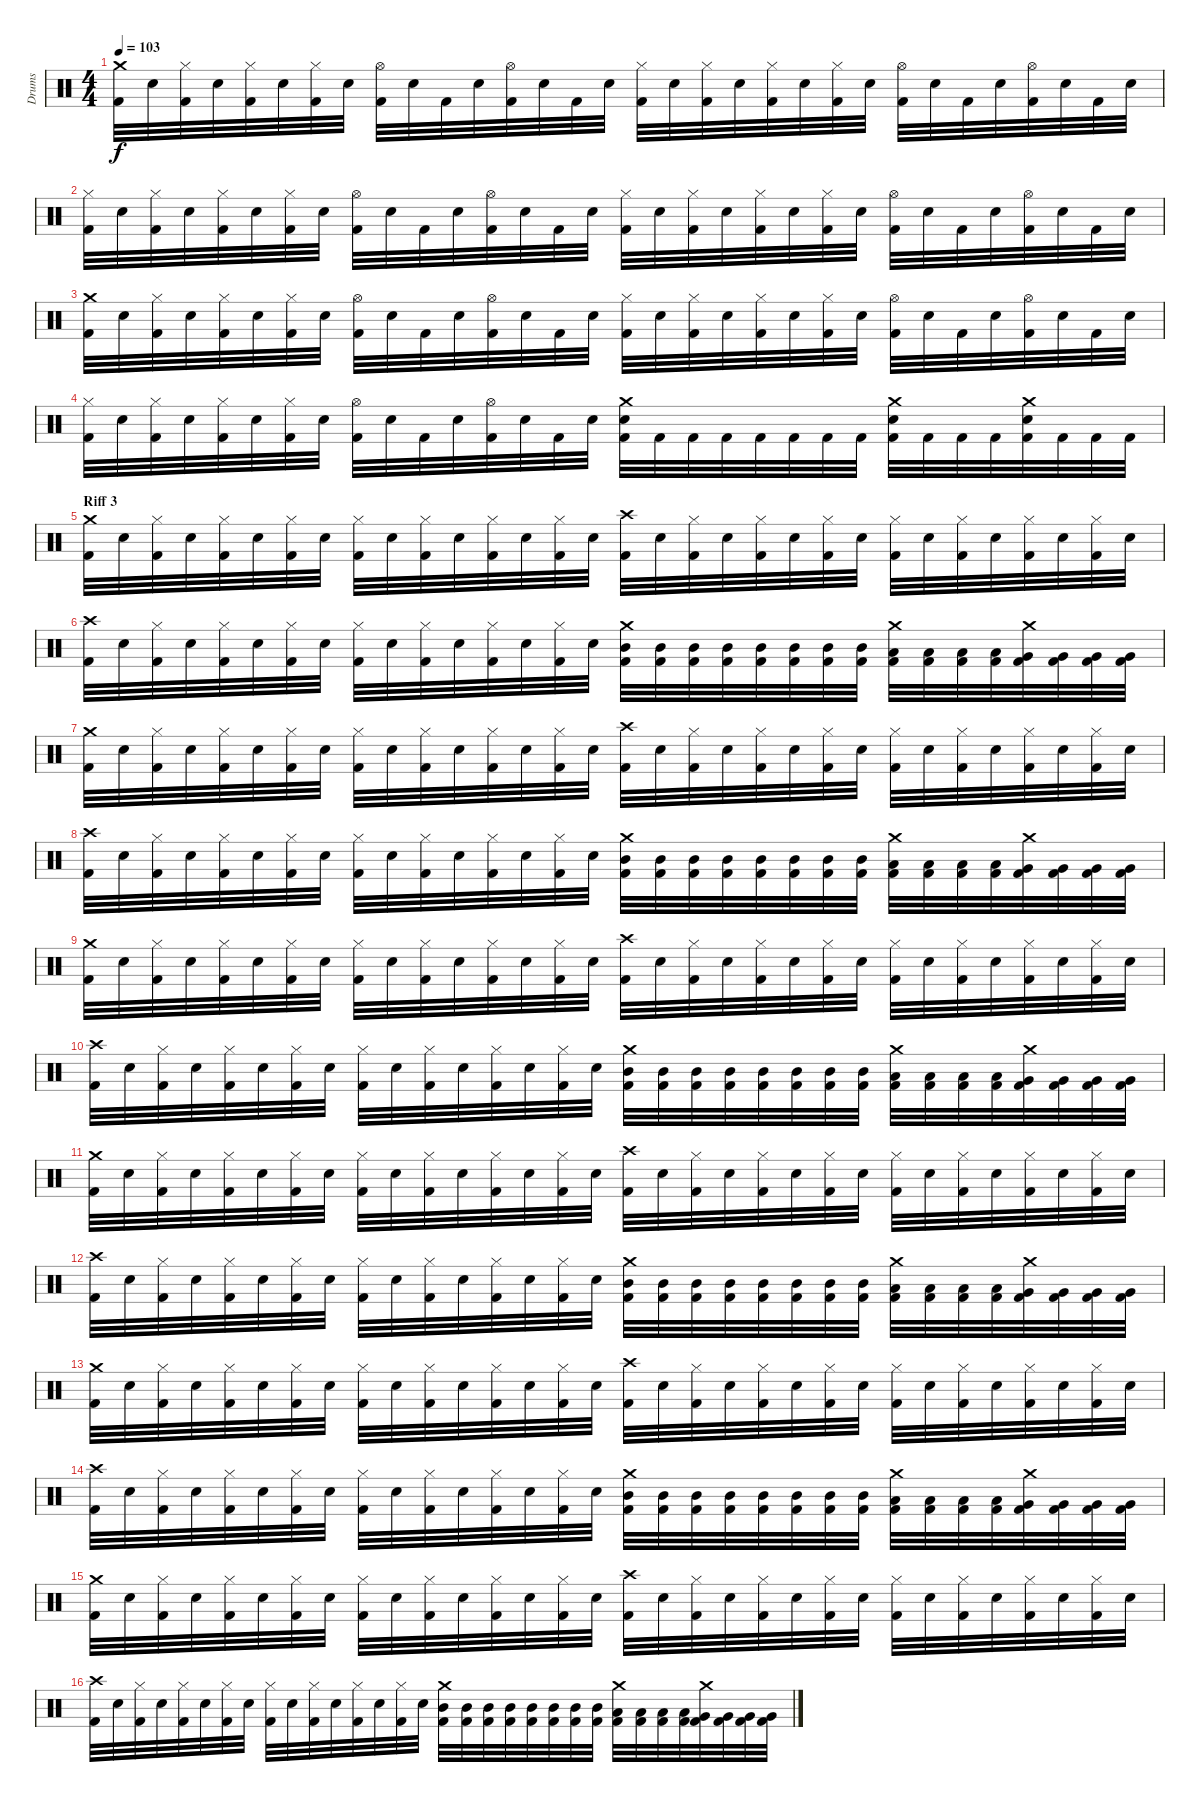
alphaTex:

\track ("Drums" "Drums") {instrument percussion}
\staff {score}
\articulation defaults
\ts (4 4)
\tempo 103
\clef neutral
\ks c
("Crash medium (hit)" "Kick (hit) 2").32{dy f} "Electric Snare (hit)".32 ("Hi-Hat (closed)" "Kick (hit) 2").32 "Electric Snare (hit)".32 ("Hi-Hat (closed)" "Kick (hit) 2").32 "Electric Snare (hit)".32 ("Hi-Hat (closed)" "Kick (hit) 2").32 "Electric Snare (hit)".32 ("Hi-Hat (open)" "Kick (hit) 2").32 "Electric Snare (hit)".32 "Kick (hit) 2".32 "Electric Snare (hit)".32 ("Hi-Hat (open)" "Kick (hit) 2").32 "Electric Snare (hit)".32 "Kick (hit) 2".32 "Electric Snare (hit)".32 ("Hi-Hat (closed)" "Kick (hit) 2").32 "Electric Snare (hit)".32 ("Hi-Hat (closed)" "Kick (hit) 2").32 "Electric Snare (hit)".32 ("Hi-Hat (closed)" "Kick (hit) 2").32 "Electric Snare (hit)".32 ("Hi-Hat (closed)" "Kick (hit) 2").32 "Electric Snare (hit)".32 ("Hi-Hat (open)" "Kick (hit) 2").32 "Electric Snare (hit)".32 "Kick (hit) 2".32 "Electric Snare (hit)".32 ("Hi-Hat (open)" "Kick (hit) 2").32 "Electric Snare (hit)".32 "Kick (hit) 2".32 "Electric Snare (hit)".32 |
("Hi-Hat (closed)" "Kick (hit) 2").32 "Electric Snare (hit)".32 ("Hi-Hat (closed)" "Kick (hit) 2").32 "Electric Snare (hit)".32 ("Hi-Hat (closed)" "Kick (hit) 2").32 "Electric Snare (hit)".32 ("Hi-Hat (closed)" "Kick (hit) 2").32 "Electric Snare (hit)".32 ("Hi-Hat (open)" "Kick (hit) 2").32 "Electric Snare (hit)".32 "Kick (hit) 2".32 "Electric Snare (hit)".32 ("Hi-Hat (open)" "Kick (hit) 2").32 "Electric Snare (hit)".32 "Kick (hit) 2".32 "Electric Snare (hit)".32 ("Hi-Hat (closed)" "Kick (hit) 2").32 "Electric Snare (hit)".32 ("Hi-Hat (closed)" "Kick (hit) 2").32 "Electric Snare (hit)".32 ("Hi-Hat (closed)" "Kick (hit) 2").32 "Electric Snare (hit)".32 ("Hi-Hat (closed)" "Kick (hit) 2").32 "Electric Snare (hit)".32 ("Hi-Hat (open)" "Kick (hit) 2").32 "Electric Snare (hit)".32 "Kick (hit) 2".32 "Electric Snare (hit)".32 ("Hi-Hat (open)" "Kick (hit) 2").32 "Electric Snare (hit)".32 "Kick (hit) 2".32 "Electric Snare (hit)".32 |
("Crash medium (hit)" "Kick (hit) 2").32 "Electric Snare (hit)".32 ("Hi-Hat (closed)" "Kick (hit) 2").32 "Electric Snare (hit)".32 ("Hi-Hat (closed)" "Kick (hit) 2").32 "Electric Snare (hit)".32 ("Hi-Hat (closed)" "Kick (hit) 2").32 "Electric Snare (hit)".32 ("Hi-Hat (open)" "Kick (hit) 2").32 "Electric Snare (hit)".32 "Kick (hit) 2".32 "Electric Snare (hit)".32 ("Hi-Hat (open)" "Kick (hit) 2").32 "Electric Snare (hit)".32 "Kick (hit) 2".32 "Electric Snare (hit)".32 ("Hi-Hat (closed)" "Kick (hit) 2").32 "Electric Snare (hit)".32 ("Hi-Hat (closed)" "Kick (hit) 2").32 "Electric Snare (hit)".32 ("Hi-Hat (closed)" "Kick (hit) 2").32 "Electric Snare (hit)".32 ("Hi-Hat (closed)" "Kick (hit) 2").32 "Electric Snare (hit)".32 ("Hi-Hat (open)" "Kick (hit) 2").32 "Electric Snare (hit)".32 "Kick (hit) 2".32 "Electric Snare (hit)".32 ("Hi-Hat (open)" "Kick (hit) 2").32 "Electric Snare (hit)".32 "Kick (hit) 2".32 "Electric Snare (hit)".32 |
("Hi-Hat (closed)" "Kick (hit) 2").32 "Electric Snare (hit)".32 ("Hi-Hat (closed)" "Kick (hit) 2").32 "Electric Snare (hit)".32 ("Hi-Hat (closed)" "Kick (hit) 2").32 "Electric Snare (hit)".32 ("Hi-Hat (closed)" "Kick (hit) 2").32 "Electric Snare (hit)".32 ("Hi-Hat (open)" "Kick (hit) 2").32 "Electric Snare (hit)".32 "Kick (hit) 2".32 "Electric Snare (hit)".32 ("Hi-Hat (open)" "Kick (hit) 2").32 "Electric Snare (hit)".32 "Kick (hit) 2".32 "Electric Snare (hit)".32 ("Crash medium (hit)" "Electric Snare (hit)" "Kick (hit) 2").32 "Kick (hit) 2".32 "Kick (hit) 2".32 "Kick (hit) 2".32 "Kick (hit) 2".32 "Kick (hit) 2".32 "Kick (hit) 2".32 "Kick (hit) 2".32 ("Crash medium (hit)" "Electric Snare (hit)" "Kick (hit) 2").32 "Kick (hit) 2".32 "Kick (hit) 2".32 "Kick (hit) 2".32 ("Crash medium (hit)" "Electric Snare (hit)" "Kick (hit) 2").32 "Kick (hit) 2".32 "Kick (hit) 2".32 "Kick (hit) 2".32 |
\section ("" "Riff 3")
("Crash medium (hit)" "Kick (hit) 2").32 "Electric Snare (hit)".32 ("Hi-Hat (closed)" "Kick (hit) 2").32 "Electric Snare (hit)".32 ("Hi-Hat (closed)" "Kick (hit) 2").32 "Electric Snare (hit)".32 ("Hi-Hat (closed)" "Kick (hit) 2").32 "Electric Snare (hit)".32 ("Hi-Hat (closed)" "Kick (hit) 2").32 "Electric Snare (hit)".32 ("Hi-Hat (closed)" "Kick (hit) 2").32 "Electric Snare (hit)".32 ("Hi-Hat (closed)" "Kick (hit) 2").32 "Electric Snare (hit)".32 ("Hi-Hat (closed)" "Kick (hit) 2").32 "Electric Snare (hit)".32 ("Crash high (hit)" "Kick (hit) 2").32 "Electric Snare (hit)".32 ("Hi-Hat (closed)" "Kick (hit) 2").32 "Electric Snare (hit)".32 ("Hi-Hat (closed)" "Kick (hit) 2").32 "Electric Snare (hit)".32 ("Hi-Hat (closed)" "Kick (hit) 2").32 "Electric Snare (hit)".32 ("Hi-Hat (closed)" "Kick (hit) 2").32 "Electric Snare (hit)".32 ("Hi-Hat (closed)" "Kick (hit) 2").32 "Electric Snare (hit)".32 ("Hi-Hat (closed)" "Kick (hit) 2").32 "Electric Snare (hit)".32 ("Hi-Hat (closed)" "Kick (hit) 2").32 "Electric Snare (hit)".32 |
("Crash high (hit)" "Kick (hit) 2").32 "Electric Snare (hit)".32 ("Hi-Hat (closed)" "Kick (hit) 2").32 "Electric Snare (hit)".32 ("Hi-Hat (closed)" "Kick (hit) 2").32 "Electric Snare (hit)".32 ("Hi-Hat (closed)" "Kick (hit) 2").32 "Electric Snare (hit)".32 ("Hi-Hat (closed)" "Kick (hit) 2").32 "Electric Snare (hit)".32 ("Hi-Hat (closed)" "Kick (hit) 2").32 "Electric Snare (hit)".32 ("Hi-Hat (closed)" "Kick (hit) 2").32 "Electric Snare (hit)".32 ("Hi-Hat (closed)" "Kick (hit) 2").32 "Electric Snare (hit)".32 ("Crash medium (hit)" "Mid Tom (hit)" "Kick (hit) 2").32 ("Mid Tom (hit)" "Kick (hit) 2").32 ("Mid Tom (hit)" "Kick (hit) 2").32 ("Mid Tom (hit)" "Kick (hit) 2").32 ("Mid Tom (hit)" "Kick (hit) 2").32 ("Mid Tom (hit)" "Kick (hit) 2").32 ("Mid Tom (hit)" "Kick (hit) 2").32 ("Mid Tom (hit)" "Kick (hit) 2").32 ("Crash medium (hit)" "Low Tom (hit)" "Kick (hit) 2").32 ("Low Tom (hit)" "Kick (hit) 2").32 ("Low Tom (hit)" "Kick (hit) 2").32 ("Low Tom (hit)" "Kick (hit) 2").32 ("Crash medium (hit)" "Very Low Tom (hit)" "Kick (hit) 2").32 ("Very Low Tom (hit)" "Kick (hit) 2").32 ("Very Low Tom (hit)" "Kick (hit) 2").32 ("Very Low Tom (hit)" "Kick (hit) 2").32 |
("Crash medium (hit)" "Kick (hit) 2").32 "Electric Snare (hit)".32 ("Hi-Hat (closed)" "Kick (hit) 2").32 "Electric Snare (hit)".32 ("Hi-Hat (closed)" "Kick (hit) 2").32 "Electric Snare (hit)".32 ("Hi-Hat (closed)" "Kick (hit) 2").32 "Electric Snare (hit)".32 ("Hi-Hat (closed)" "Kick (hit) 2").32 "Electric Snare (hit)".32 ("Hi-Hat (closed)" "Kick (hit) 2").32 "Electric Snare (hit)".32 ("Hi-Hat (closed)" "Kick (hit) 2").32 "Electric Snare (hit)".32 ("Hi-Hat (closed)" "Kick (hit) 2").32 "Electric Snare (hit)".32 ("Crash high (hit)" "Kick (hit) 2").32 "Electric Snare (hit)".32 ("Hi-Hat (closed)" "Kick (hit) 2").32 "Electric Snare (hit)".32 ("Hi-Hat (closed)" "Kick (hit) 2").32 "Electric Snare (hit)".32 ("Hi-Hat (closed)" "Kick (hit) 2").32 "Electric Snare (hit)".32 ("Hi-Hat (closed)" "Kick (hit) 2").32 "Electric Snare (hit)".32 ("Hi-Hat (closed)" "Kick (hit) 2").32 "Electric Snare (hit)".32 ("Hi-Hat (closed)" "Kick (hit) 2").32 "Electric Snare (hit)".32 ("Hi-Hat (closed)" "Kick (hit) 2").32 "Electric Snare (hit)".32 |
("Crash high (hit)" "Kick (hit) 2").32 "Electric Snare (hit)".32 ("Hi-Hat (closed)" "Kick (hit) 2").32 "Electric Snare (hit)".32 ("Hi-Hat (closed)" "Kick (hit) 2").32 "Electric Snare (hit)".32 ("Hi-Hat (closed)" "Kick (hit) 2").32 "Electric Snare (hit)".32 ("Hi-Hat (closed)" "Kick (hit) 2").32 "Electric Snare (hit)".32 ("Hi-Hat (closed)" "Kick (hit) 2").32 "Electric Snare (hit)".32 ("Hi-Hat (closed)" "Kick (hit) 2").32 "Electric Snare (hit)".32 ("Hi-Hat (closed)" "Kick (hit) 2").32 "Electric Snare (hit)".32 ("Crash medium (hit)" "Mid Tom (hit)" "Kick (hit) 2").32 ("Mid Tom (hit)" "Kick (hit) 2").32 ("Mid Tom (hit)" "Kick (hit) 2").32 ("Mid Tom (hit)" "Kick (hit) 2").32 ("Mid Tom (hit)" "Kick (hit) 2").32 ("Mid Tom (hit)" "Kick (hit) 2").32 ("Mid Tom (hit)" "Kick (hit) 2").32 ("Mid Tom (hit)" "Kick (hit) 2").32 ("Crash medium (hit)" "Low Tom (hit)" "Kick (hit) 2").32 ("Low Tom (hit)" "Kick (hit) 2").32 ("Low Tom (hit)" "Kick (hit) 2").32 ("Low Tom (hit)" "Kick (hit) 2").32 ("Crash medium (hit)" "Very Low Tom (hit)" "Kick (hit) 2").32 ("Very Low Tom (hit)" "Kick (hit) 2").32 ("Very Low Tom (hit)" "Kick (hit) 2").32 ("Very Low Tom (hit)" "Kick (hit) 2").32 |
("Crash medium (hit)" "Kick (hit) 2").32 "Electric Snare (hit)".32 ("Hi-Hat (closed)" "Kick (hit) 2").32 "Electric Snare (hit)".32 ("Hi-Hat (closed)" "Kick (hit) 2").32 "Electric Snare (hit)".32 ("Hi-Hat (closed)" "Kick (hit) 2").32 "Electric Snare (hit)".32 ("Hi-Hat (closed)" "Kick (hit) 2").32 "Electric Snare (hit)".32 ("Hi-Hat (closed)" "Kick (hit) 2").32 "Electric Snare (hit)".32 ("Hi-Hat (closed)" "Kick (hit) 2").32 "Electric Snare (hit)".32 ("Hi-Hat (closed)" "Kick (hit) 2").32 "Electric Snare (hit)".32 ("Crash high (hit)" "Kick (hit) 2").32 "Electric Snare (hit)".32 ("Hi-Hat (closed)" "Kick (hit) 2").32 "Electric Snare (hit)".32 ("Hi-Hat (closed)" "Kick (hit) 2").32 "Electric Snare (hit)".32 ("Hi-Hat (closed)" "Kick (hit) 2").32 "Electric Snare (hit)".32 ("Hi-Hat (closed)" "Kick (hit) 2").32 "Electric Snare (hit)".32 ("Hi-Hat (closed)" "Kick (hit) 2").32 "Electric Snare (hit)".32 ("Hi-Hat (closed)" "Kick (hit) 2").32 "Electric Snare (hit)".32 ("Hi-Hat (closed)" "Kick (hit) 2").32 "Electric Snare (hit)".32 |
("Crash high (hit)" "Kick (hit) 2").32 "Electric Snare (hit)".32 ("Hi-Hat (closed)" "Kick (hit) 2").32 "Electric Snare (hit)".32 ("Hi-Hat (closed)" "Kick (hit) 2").32 "Electric Snare (hit)".32 ("Hi-Hat (closed)" "Kick (hit) 2").32 "Electric Snare (hit)".32 ("Hi-Hat (closed)" "Kick (hit) 2").32 "Electric Snare (hit)".32 ("Hi-Hat (closed)" "Kick (hit) 2").32 "Electric Snare (hit)".32 ("Hi-Hat (closed)" "Kick (hit) 2").32 "Electric Snare (hit)".32 ("Hi-Hat (closed)" "Kick (hit) 2").32 "Electric Snare (hit)".32 ("Crash medium (hit)" "Mid Tom (hit)" "Kick (hit) 2").32 ("Mid Tom (hit)" "Kick (hit) 2").32 ("Mid Tom (hit)" "Kick (hit) 2").32 ("Mid Tom (hit)" "Kick (hit) 2").32 ("Mid Tom (hit)" "Kick (hit) 2").32 ("Mid Tom (hit)" "Kick (hit) 2").32 ("Mid Tom (hit)" "Kick (hit) 2").32 ("Mid Tom (hit)" "Kick (hit) 2").32 ("Crash medium (hit)" "Low Tom (hit)" "Kick (hit) 2").32 ("Low Tom (hit)" "Kick (hit) 2").32 ("Low Tom (hit)" "Kick (hit) 2").32 ("Low Tom (hit)" "Kick (hit) 2").32 ("Crash medium (hit)" "Very Low Tom (hit)" "Kick (hit) 2").32 ("Very Low Tom (hit)" "Kick (hit) 2").32 ("Very Low Tom (hit)" "Kick (hit) 2").32 ("Very Low Tom (hit)" "Kick (hit) 2").32 |
("Crash medium (hit)" "Kick (hit) 2").32 "Electric Snare (hit)".32 ("Hi-Hat (closed)" "Kick (hit) 2").32 "Electric Snare (hit)".32 ("Hi-Hat (closed)" "Kick (hit) 2").32 "Electric Snare (hit)".32 ("Hi-Hat (closed)" "Kick (hit) 2").32 "Electric Snare (hit)".32 ("Hi-Hat (closed)" "Kick (hit) 2").32 "Electric Snare (hit)".32 ("Hi-Hat (closed)" "Kick (hit) 2").32 "Electric Snare (hit)".32 ("Hi-Hat (closed)" "Kick (hit) 2").32 "Electric Snare (hit)".32 ("Hi-Hat (closed)" "Kick (hit) 2").32 "Electric Snare (hit)".32 ("Crash high (hit)" "Kick (hit) 2").32 "Electric Snare (hit)".32 ("Hi-Hat (closed)" "Kick (hit) 2").32 "Electric Snare (hit)".32 ("Hi-Hat (closed)" "Kick (hit) 2").32 "Electric Snare (hit)".32 ("Hi-Hat (closed)" "Kick (hit) 2").32 "Electric Snare (hit)".32 ("Hi-Hat (closed)" "Kick (hit) 2").32 "Electric Snare (hit)".32 ("Hi-Hat (closed)" "Kick (hit) 2").32 "Electric Snare (hit)".32 ("Hi-Hat (closed)" "Kick (hit) 2").32 "Electric Snare (hit)".32 ("Hi-Hat (closed)" "Kick (hit) 2").32 "Electric Snare (hit)".32 |
("Crash high (hit)" "Kick (hit) 2").32 "Electric Snare (hit)".32 ("Hi-Hat (closed)" "Kick (hit) 2").32 "Electric Snare (hit)".32 ("Hi-Hat (closed)" "Kick (hit) 2").32 "Electric Snare (hit)".32 ("Hi-Hat (closed)" "Kick (hit) 2").32 "Electric Snare (hit)".32 ("Hi-Hat (closed)" "Kick (hit) 2").32 "Electric Snare (hit)".32 ("Hi-Hat (closed)" "Kick (hit) 2").32 "Electric Snare (hit)".32 ("Hi-Hat (closed)" "Kick (hit) 2").32 "Electric Snare (hit)".32 ("Hi-Hat (closed)" "Kick (hit) 2").32 "Electric Snare (hit)".32 ("Crash medium (hit)" "Mid Tom (hit)" "Kick (hit) 2").32 ("Mid Tom (hit)" "Kick (hit) 2").32 ("Mid Tom (hit)" "Kick (hit) 2").32 ("Mid Tom (hit)" "Kick (hit) 2").32 ("Mid Tom (hit)" "Kick (hit) 2").32 ("Mid Tom (hit)" "Kick (hit) 2").32 ("Mid Tom (hit)" "Kick (hit) 2").32 ("Mid Tom (hit)" "Kick (hit) 2").32 ("Crash medium (hit)" "Low Tom (hit)" "Kick (hit) 2").32 ("Low Tom (hit)" "Kick (hit) 2").32 ("Low Tom (hit)" "Kick (hit) 2").32 ("Low Tom (hit)" "Kick (hit) 2").32 ("Crash medium (hit)" "Very Low Tom (hit)" "Kick (hit) 2").32 ("Very Low Tom (hit)" "Kick (hit) 2").32 ("Very Low Tom (hit)" "Kick (hit) 2").32 ("Very Low Tom (hit)" "Kick (hit) 2").32 |
("Crash medium (hit)" "Kick (hit) 2").32 "Electric Snare (hit)".32 ("Hi-Hat (closed)" "Kick (hit) 2").32 "Electric Snare (hit)".32 ("Hi-Hat (closed)" "Kick (hit) 2").32 "Electric Snare (hit)".32 ("Hi-Hat (closed)" "Kick (hit) 2").32 "Electric Snare (hit)".32 ("Hi-Hat (closed)" "Kick (hit) 2").32 "Electric Snare (hit)".32 ("Hi-Hat (closed)" "Kick (hit) 2").32 "Electric Snare (hit)".32 ("Hi-Hat (closed)" "Kick (hit) 2").32 "Electric Snare (hit)".32 ("Hi-Hat (closed)" "Kick (hit) 2").32 "Electric Snare (hit)".32 ("Crash high (hit)" "Kick (hit) 2").32 "Electric Snare (hit)".32 ("Hi-Hat (closed)" "Kick (hit) 2").32 "Electric Snare (hit)".32 ("Hi-Hat (closed)" "Kick (hit) 2").32 "Electric Snare (hit)".32 ("Hi-Hat (closed)" "Kick (hit) 2").32 "Electric Snare (hit)".32 ("Hi-Hat (closed)" "Kick (hit) 2").32 "Electric Snare (hit)".32 ("Hi-Hat (closed)" "Kick (hit) 2").32 "Electric Snare (hit)".32 ("Hi-Hat (closed)" "Kick (hit) 2").32 "Electric Snare (hit)".32 ("Hi-Hat (closed)" "Kick (hit) 2").32 "Electric Snare (hit)".32 |
("Crash high (hit)" "Kick (hit) 2").32 "Electric Snare (hit)".32 ("Hi-Hat (closed)" "Kick (hit) 2").32 "Electric Snare (hit)".32 ("Hi-Hat (closed)" "Kick (hit) 2").32 "Electric Snare (hit)".32 ("Hi-Hat (closed)" "Kick (hit) 2").32 "Electric Snare (hit)".32 ("Hi-Hat (closed)" "Kick (hit) 2").32 "Electric Snare (hit)".32 ("Hi-Hat (closed)" "Kick (hit) 2").32 "Electric Snare (hit)".32 ("Hi-Hat (closed)" "Kick (hit) 2").32 "Electric Snare (hit)".32 ("Hi-Hat (closed)" "Kick (hit) 2").32 "Electric Snare (hit)".32 ("Crash medium (hit)" "Mid Tom (hit)" "Kick (hit) 2").32 ("Mid Tom (hit)" "Kick (hit) 2").32 ("Mid Tom (hit)" "Kick (hit) 2").32 ("Mid Tom (hit)" "Kick (hit) 2").32 ("Mid Tom (hit)" "Kick (hit) 2").32 ("Mid Tom (hit)" "Kick (hit) 2").32 ("Mid Tom (hit)" "Kick (hit) 2").32 ("Mid Tom (hit)" "Kick (hit) 2").32 ("Crash medium (hit)" "Low Tom (hit)" "Kick (hit) 2").32 ("Low Tom (hit)" "Kick (hit) 2").32 ("Low Tom (hit)" "Kick (hit) 2").32 ("Low Tom (hit)" "Kick (hit) 2").32 ("Crash medium (hit)" "Very Low Tom (hit)" "Kick (hit) 2").32 ("Very Low Tom (hit)" "Kick (hit) 2").32 ("Very Low Tom (hit)" "Kick (hit) 2").32 ("Very Low Tom (hit)" "Kick (hit) 2").32 |
("Crash medium (hit)" "Kick (hit) 2").32 "Electric Snare (hit)".32 ("Hi-Hat (closed)" "Kick (hit) 2").32 "Electric Snare (hit)".32 ("Hi-Hat (closed)" "Kick (hit) 2").32 "Electric Snare (hit)".32 ("Hi-Hat (closed)" "Kick (hit) 2").32 "Electric Snare (hit)".32 ("Hi-Hat (closed)" "Kick (hit) 2").32 "Electric Snare (hit)".32 ("Hi-Hat (closed)" "Kick (hit) 2").32 "Electric Snare (hit)".32 ("Hi-Hat (closed)" "Kick (hit) 2").32 "Electric Snare (hit)".32 ("Hi-Hat (closed)" "Kick (hit) 2").32 "Electric Snare (hit)".32 ("Crash high (hit)" "Kick (hit) 2").32 "Electric Snare (hit)".32 ("Hi-Hat (closed)" "Kick (hit) 2").32 "Electric Snare (hit)".32 ("Hi-Hat (closed)" "Kick (hit) 2").32 "Electric Snare (hit)".32 ("Hi-Hat (closed)" "Kick (hit) 2").32 "Electric Snare (hit)".32 ("Hi-Hat (closed)" "Kick (hit) 2").32 "Electric Snare (hit)".32 ("Hi-Hat (closed)" "Kick (hit) 2").32 "Electric Snare (hit)".32 ("Hi-Hat (closed)" "Kick (hit) 2").32 "Electric Snare (hit)".32 ("Hi-Hat (closed)" "Kick (hit) 2").32 "Electric Snare (hit)".32 |
("Crash high (hit)" "Kick (hit) 2").32 "Electric Snare (hit)".32 ("Hi-Hat (closed)" "Kick (hit) 2").32 "Electric Snare (hit)".32 ("Hi-Hat (closed)" "Kick (hit) 2").32 "Electric Snare (hit)".32 ("Hi-Hat (closed)" "Kick (hit) 2").32 "Electric Snare (hit)".32 ("Hi-Hat (closed)" "Kick (hit) 2").32 "Electric Snare (hit)".32 ("Hi-Hat (closed)" "Kick (hit) 2").32 "Electric Snare (hit)".32 ("Hi-Hat (closed)" "Kick (hit) 2").32 "Electric Snare (hit)".32 ("Hi-Hat (closed)" "Kick (hit) 2").32 "Electric Snare (hit)".32 ("Crash medium (hit)" "Mid Tom (hit)" "Kick (hit) 2").32 ("Mid Tom (hit)" "Kick (hit) 2").32 ("Mid Tom (hit)" "Kick (hit) 2").32 ("Mid Tom (hit)" "Kick (hit) 2").32 ("Mid Tom (hit)" "Kick (hit) 2").32 ("Mid Tom (hit)" "Kick (hit) 2").32 ("Mid Tom (hit)" "Kick (hit) 2").32 ("Mid Tom (hit)" "Kick (hit) 2").32 ("Crash medium (hit)" "Low Tom (hit)" "Kick (hit) 2").32 ("Low Tom (hit)" "Kick (hit) 2").32 ("Low Tom (hit)" "Kick (hit) 2").32 ("Low Tom (hit)" "Kick (hit) 2").32 ("Crash medium (hit)" "Very Low Tom (hit)" "Kick (hit) 2").32 ("Very Low Tom (hit)" "Kick (hit) 2").32 ("Very Low Tom (hit)" "Kick (hit) 2").32 ("Very Low Tom (hit)" "Kick (hit) 2").32
